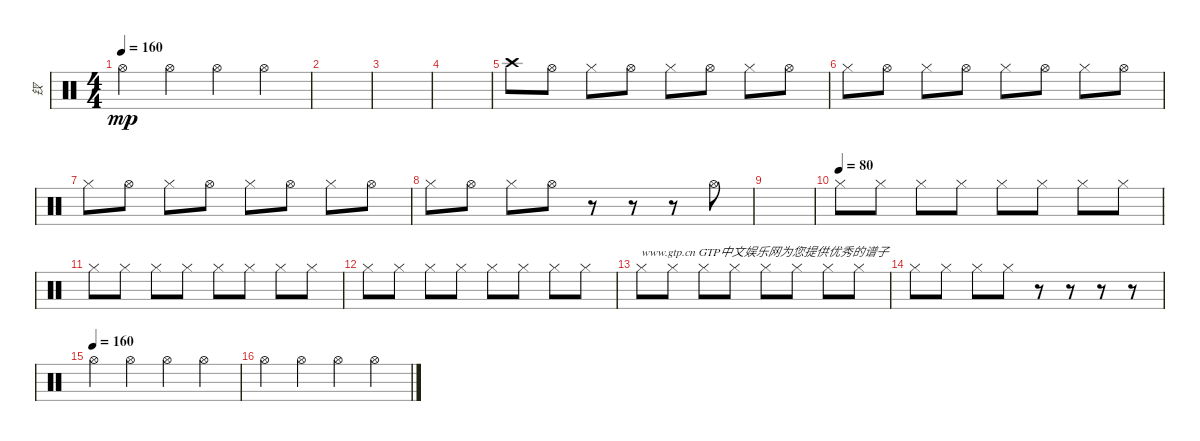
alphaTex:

\track ("钗" "钗") {instrument percussion}
\staff {score}
\articulation defaults
\ts (4 4)
\tempo 160
\clef neutral
\ks c "Hi-Hat (open)".4{dy mp} "Hi-Hat (open)".4 "Hi-Hat (open)".4 "Hi-Hat (open)".4
|
|
|
|
"Crash high (hit)".8 "Hi-Hat (open)".8 "Hi-Hat (closed)".8 "Hi-Hat (open)".8 "Hi-Hat (closed)".8 "Hi-Hat (open)".8 "Hi-Hat (closed)".8 "Hi-Hat (open)".8 |
"Hi-Hat (closed)".8 "Hi-Hat (open)".8 "Hi-Hat (closed)".8 "Hi-Hat (open)".8 "Hi-Hat (closed)".8 "Hi-Hat (open)".8 "Hi-Hat (closed)".8 "Hi-Hat (open)".8 |
"Hi-Hat (closed)".8 "Hi-Hat (open)".8 "Hi-Hat (closed)".8 "Hi-Hat (open)".8 "Hi-Hat (closed)".8 "Hi-Hat (open)".8 "Hi-Hat (closed)".8 "Hi-Hat (open)".8 |
"Hi-Hat (closed)".8 "Hi-Hat (open)".8 "Hi-Hat (closed)".8 "Hi-Hat (open)".8 r.8 r.8 r.8 "Hi-Hat (open)".8 |
|
\tempo (80)
"Hi-Hat (closed)".8 "Hi-Hat (closed)".8 "Hi-Hat (closed)".8 "Hi-Hat (closed)".8 "Hi-Hat (closed)".8 "Hi-Hat (closed)".8 "Hi-Hat (closed)".8 "Hi-Hat (closed)".8 |
"Hi-Hat (closed)".8 "Hi-Hat (closed)".8 "Hi-Hat (closed)".8 "Hi-Hat (closed)".8 "Hi-Hat (closed)".8 "Hi-Hat (closed)".8 "Hi-Hat (closed)".8 "Hi-Hat (closed)".8 |
"Hi-Hat (closed)".8 "Hi-Hat (closed)".8 "Hi-Hat (closed)".8 "Hi-Hat (closed)".8 "Hi-Hat (closed)".8 "Hi-Hat (closed)".8 "Hi-Hat (closed)".8 "Hi-Hat (closed)".8 |
"Hi-Hat (closed)".8{txt "www.gtp.cn GTP中文娱乐网为您提供优秀的谱子"} "Hi-Hat (closed)".8 "Hi-Hat (closed)".8 "Hi-Hat (closed)".8 "Hi-Hat (closed)".8 "Hi-Hat (closed)".8 "Hi-Hat (closed)".8 "Hi-Hat (closed)".8 |
"Hi-Hat (closed)".8 "Hi-Hat (closed)".8 "Hi-Hat (closed)".8 "Hi-Hat (closed)".8 r.8 r.8 r.8 r.8 |
\tempo (160)
"Hi-Hat (open)".4 "Hi-Hat (open)".4 "Hi-Hat (open)".4 "Hi-Hat (open)".4 |
"Hi-Hat (open)".4 "Hi-Hat (open)".4 "Hi-Hat (open)".4 "Hi-Hat (open)".4
